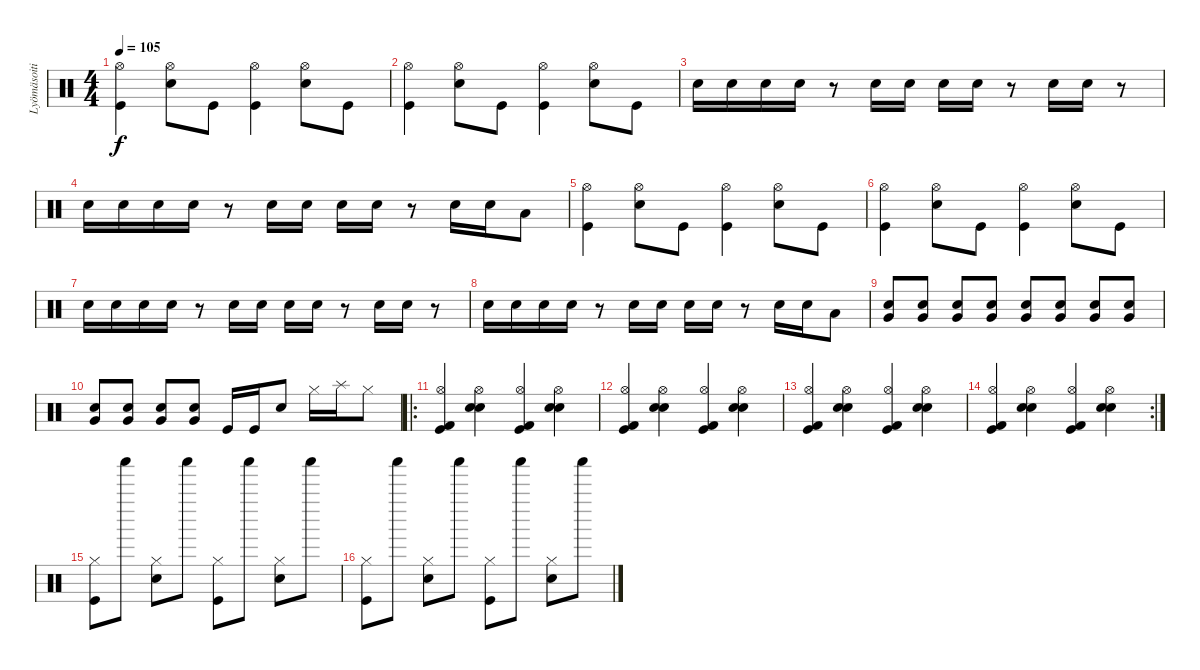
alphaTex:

\track ("Lyömäsoitin" "Lyömäsoiti") {instrument percussion}
\staff {score}
\articulation defaults
\ts (4 4)
\tempo 105
\clef neutral
\ks c
("Kick (hit)" "Hi-Hat (open)").4{dy f} ("Electric Snare (hit)" "Hi-Hat (open)").8 "Kick (hit)".8 ("Kick (hit)" "Hi-Hat (open)").4 ("Electric Snare (hit)" "Hi-Hat (open)").8 "Kick (hit)".8 |
("Kick (hit)" "Hi-Hat (open)").4 ("Electric Snare (hit)" "Hi-Hat (open)").8 "Kick (hit)".8 ("Kick (hit)" "Hi-Hat (open)").4 ("Electric Snare (hit)" "Hi-Hat (open)").8 "Kick (hit)".8 |
"Electric Snare (hit)".16 "Electric Snare (hit)".16 "Electric Snare (hit)".16 "Electric Snare (hit)".16 r.8 "Electric Snare (hit)".16 "Electric Snare (hit)".16 "Electric Snare (hit)".16 "Electric Snare (hit)".16 r.8 "Electric Snare (hit)".16 "Electric Snare (hit)".16 r.8 |
"Electric Snare (hit)".16 "Electric Snare (hit)".16 "Electric Snare (hit)".16 "Electric Snare (hit)".16 r.8 "Electric Snare (hit)".16 "Electric Snare (hit)".16 "Electric Snare (hit)".16 "Electric Snare (hit)".16 r.8 "Electric Snare (hit)".16 "Electric Snare (hit)".16 "Low Floor Tom (hit)".8 |
("Kick (hit)" "Hi-Hat (open)").4 ("Electric Snare (hit)" "Hi-Hat (open)").8 "Kick (hit)".8 ("Kick (hit)" "Hi-Hat (open)").4 ("Electric Snare (hit)" "Hi-Hat (open)").8 "Kick (hit)".8 |
("Kick (hit)" "Hi-Hat (open)").4 ("Electric Snare (hit)" "Hi-Hat (open)").8 "Kick (hit)".8 ("Kick (hit)" "Hi-Hat (open)").4 ("Electric Snare (hit)" "Hi-Hat (open)").8 "Kick (hit)".8 |
"Electric Snare (hit)".16 "Electric Snare (hit)".16 "Electric Snare (hit)".16 "Electric Snare (hit)".16 r.8 "Electric Snare (hit)".16 "Electric Snare (hit)".16 "Electric Snare (hit)".16 "Electric Snare (hit)".16 r.8 "Electric Snare (hit)".16 "Electric Snare (hit)".16 r.8 |
"Electric Snare (hit)".16 "Electric Snare (hit)".16 "Electric Snare (hit)".16 "Electric Snare (hit)".16 r.8 "Electric Snare (hit)".16 "Electric Snare (hit)".16 "Electric Snare (hit)".16 "Electric Snare (hit)".16 r.8 "Electric Snare (hit)".16 "Electric Snare (hit)".16 "Low Floor Tom (hit)".8 |
("Very Low Tom (hit)" "Electric Snare (hit)").8 ("Very Low Tom (hit)" "Electric Snare (hit)").8 ("Very Low Tom (hit)" "Electric Snare (hit)").8 ("Very Low Tom (hit)" "Electric Snare (hit)").8 ("Very Low Tom (hit)" "Electric Snare (hit)").8 ("Very Low Tom (hit)" "Electric Snare (hit)").8 ("Very Low Tom (hit)" "Electric Snare (hit)").8 ("Very Low Tom (hit)" "Electric Snare (hit)").8 |
("Very Low Tom (hit)" "Electric Snare (hit)").8 ("Very Low Tom (hit)" "Electric Snare (hit)").8 ("Very Low Tom (hit)" "Electric Snare (hit)").8 ("Very Low Tom (hit)" "Electric Snare (hit)").8 "Kick (hit)".16 "Kick (hit)".16 "Electric Snare (hit)".8 "Hi-Hat (closed)".16 "Splash (hit)".16 "Hi-Hat (closed)".8 |
\ro
("Kick (hit)" "Kick (hit) 2" "Hi-Hat (open)").4 ("Electric Snare (hit)" "Snare (hit) 2" "Hi-Hat (open)").4 ("Kick (hit)" "Kick (hit) 2" "Hi-Hat (open)").4 ("Electric Snare (hit)" "Snare (hit) 2" "Hi-Hat (open)").4 |
("Kick (hit)" "Kick (hit) 2" "Hi-Hat (open)").4 ("Electric Snare (hit)" "Snare (hit) 2" "Hi-Hat (open)").4 ("Kick (hit)" "Kick (hit) 2" "Hi-Hat (open)").4 ("Electric Snare (hit)" "Snare (hit) 2" "Hi-Hat (open)").4 |
("Kick (hit)" "Kick (hit) 2" "Hi-Hat (open)").4 ("Electric Snare (hit)" "Snare (hit) 2" "Hi-Hat (open)").4 ("Kick (hit)" "Kick (hit) 2" "Hi-Hat (open)").4 ("Electric Snare (hit)" "Snare (hit) 2" "Hi-Hat (open)").4 |
\rc 2
("Kick (hit)" "Kick (hit) 2" "Hi-Hat (open)").4 ("Electric Snare (hit)" "Snare (hit) 2" "Hi-Hat (open)").4 ("Kick (hit)" "Kick (hit) 2" "Hi-Hat (open)").4 ("Electric Snare (hit)" "Snare (hit) 2" "Hi-Hat (open)").4 |
("Kick (hit)" "Hi-Hat (closed)").8{volume 0} "Shaker (hit)".8 ("Electric Snare (hit)" "Hi-Hat (closed)").8 "Shaker (hit)".8 ("Kick (hit)" "Hi-Hat (closed)").8 "Shaker (hit)".8 ("Electric Snare (hit)" "Hi-Hat (closed)").8 "Shaker (hit)".8 |
("Kick (hit)" "Hi-Hat (closed)").8 "Shaker (hit)".8 ("Electric Snare (hit)" "Hi-Hat (closed)").8 "Shaker (hit)".8 ("Kick (hit)" "Hi-Hat (closed)").8 "Shaker (hit)".8 ("Electric Snare (hit)" "Hi-Hat (closed)").8 "Shaker (hit)".8
